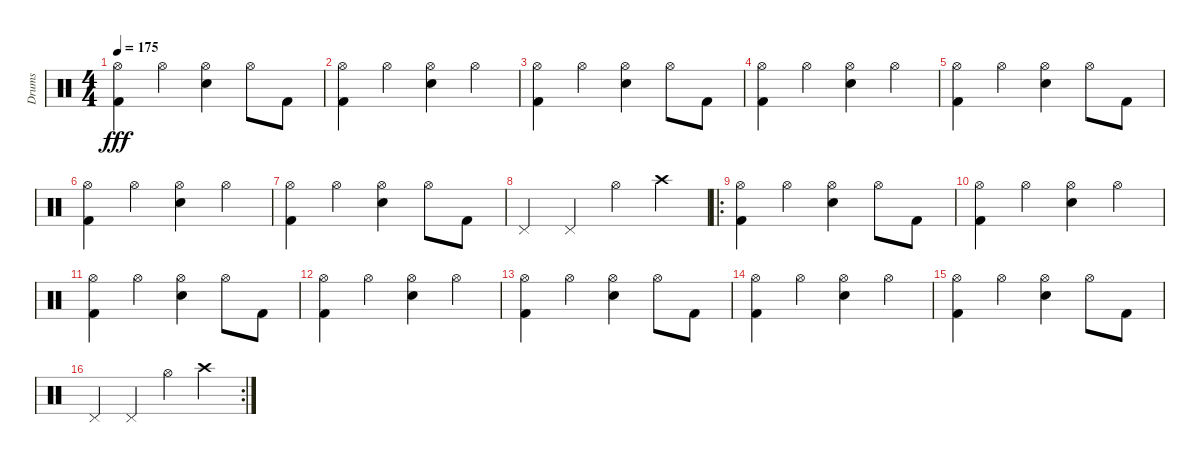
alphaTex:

\track ("Drums" "Drums") {instrument percussion}
\staff {score}
\articulation defaults
\ts (4 4)
\tempo 175
\clef neutral
\ks c
("Hi-Hat (open)" "Kick (hit) 2").4{dy fff} "Hi-Hat (open)".4 ("Hi-Hat (open)" "Snare (hit) 2").4 "Hi-Hat (open)".8 "Kick (hit) 2".8 |
("Hi-Hat (open)" "Kick (hit) 2").4 "Hi-Hat (open)".4 ("Hi-Hat (open)" "Snare (hit) 2").4 "Hi-Hat (open)".4 |
("Hi-Hat (open)" "Kick (hit) 2").4 "Hi-Hat (open)".4 ("Hi-Hat (open)" "Snare (hit) 2").4 "Hi-Hat (open)".8 "Kick (hit) 2".8 |
("Hi-Hat (open)" "Kick (hit) 2").4 "Hi-Hat (open)".4 ("Hi-Hat (open)" "Snare (hit) 2").4 "Hi-Hat (open)".4 |
("Hi-Hat (open)" "Kick (hit) 2").4 "Hi-Hat (open)".4 ("Hi-Hat (open)" "Snare (hit) 2").4 "Hi-Hat (open)".8 "Kick (hit) 2".8 |
("Hi-Hat (open)" "Kick (hit) 2").4 "Hi-Hat (open)".4 ("Hi-Hat (open)" "Snare (hit) 2").4 "Hi-Hat (open)".4 |
("Hi-Hat (open)" "Kick (hit) 2").4 "Hi-Hat (open)".4 ("Hi-Hat (open)" "Snare (hit) 2").4 "Hi-Hat (open)".8 "Kick (hit) 2".8 |
"Pedal Hi-Hat (hit)".4 "Pedal Hi-Hat (hit)".4 "Hi-Hat (open)".4 "Crash high (hit)".4 |
\ro
("Hi-Hat (open)" "Kick (hit) 2").4 "Hi-Hat (open)".4 ("Hi-Hat (open)" "Snare (hit) 2").4 "Hi-Hat (open)".8 "Kick (hit) 2".8 |
("Hi-Hat (open)" "Kick (hit) 2").4 "Hi-Hat (open)".4 ("Hi-Hat (open)" "Snare (hit) 2").4 "Hi-Hat (open)".4 |
("Hi-Hat (open)" "Kick (hit) 2").4 "Hi-Hat (open)".4 ("Hi-Hat (open)" "Snare (hit) 2").4 "Hi-Hat (open)".8 "Kick (hit) 2".8 |
("Hi-Hat (open)" "Kick (hit) 2").4 "Hi-Hat (open)".4 ("Hi-Hat (open)" "Snare (hit) 2").4 "Hi-Hat (open)".4 |
("Hi-Hat (open)" "Kick (hit) 2").4 "Hi-Hat (open)".4 ("Hi-Hat (open)" "Snare (hit) 2").4 "Hi-Hat (open)".8 "Kick (hit) 2".8 |
("Hi-Hat (open)" "Kick (hit) 2").4 "Hi-Hat (open)".4 ("Hi-Hat (open)" "Snare (hit) 2").4 "Hi-Hat (open)".4 |
("Hi-Hat (open)" "Kick (hit) 2").4 "Hi-Hat (open)".4 ("Hi-Hat (open)" "Snare (hit) 2").4 "Hi-Hat (open)".8 "Kick (hit) 2".8 |
\rc 2 "Pedal Hi-Hat (hit)".4 "Pedal Hi-Hat (hit)".4 "Hi-Hat (open)".4 "Crash high (hit)".4
